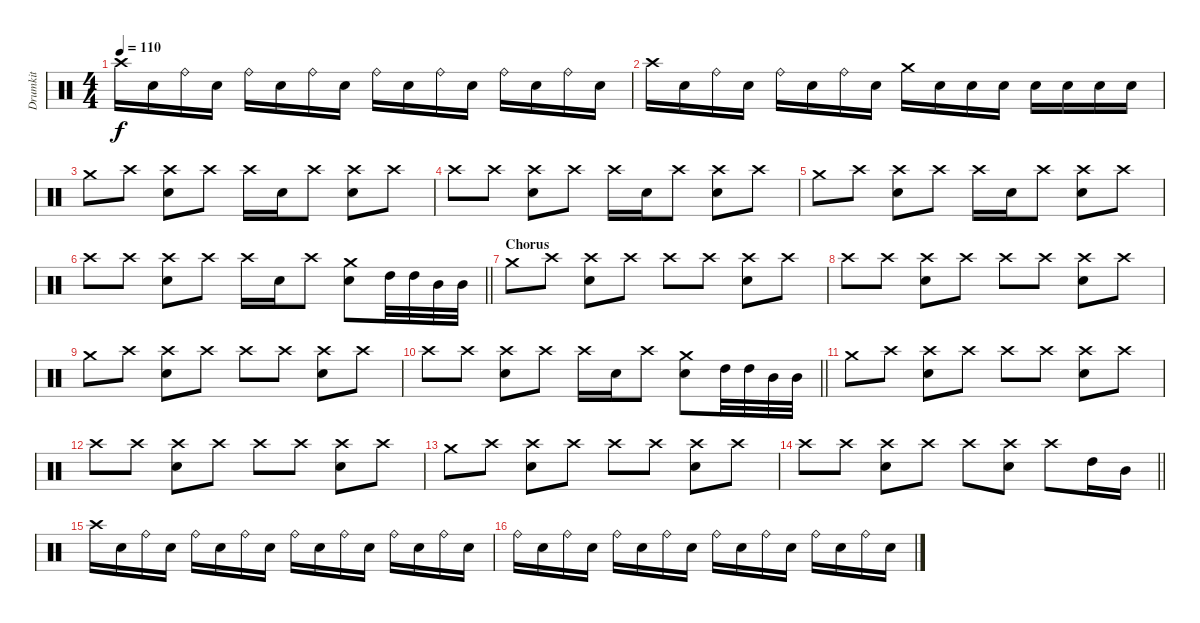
\track ("Drumkit" "Drumkit") {instrument percussion}
\staff {score}
\articulation defaults
\ts (4 4)
\tempo 110
\clef neutral
\ks c "Crash high (hit)".16{dy f} "Electric Snare (hit)".16 "Ride (bell)".16 "Electric Snare (hit)".16 "Ride (bell)".16 "Electric Snare (hit)".16 "Ride (bell)".16 "Electric Snare (hit)".16 "Ride (bell)".16 "Electric Snare (hit)".16 "Ride (bell)".16 "Electric Snare (hit)".16 "Ride (bell)".16 "Electric Snare (hit)".16 "Ride (bell)".16 "Electric Snare (hit)".16
|
"Crash high (hit)".16 "Electric Snare (hit)".16 "Ride (bell)".16 "Electric Snare (hit)".16 "Ride (bell)".16 "Electric Snare (hit)".16 "Ride (bell)".16 "Electric Snare (hit)".16 "Crash medium (hit)".16 "Electric Snare (hit)".16 "Electric Snare (hit)".16 "Electric Snare (hit)".16 "Electric Snare (hit)".16 "Electric Snare (hit)".16 "Electric Snare (hit)".16 "Electric Snare (hit)".16 |
"Crash medium (hit)".8 "Crash high (hit)".8 ("Crash high (hit)" "Electric Snare (hit)").8 "Crash high (hit)".8 "Crash high (hit)".16 "Electric Snare (hit)".16 "Crash high (hit)".8 ("Crash high (hit)" "Electric Snare (hit)").8 "Crash high (hit)".8 |
"Crash high (hit)".8 "Crash high (hit)".8 ("Crash high (hit)" "Electric Snare (hit)").8 "Crash high (hit)".8 "Crash high (hit)".16 "Electric Snare (hit)".16 "Crash high (hit)".8 ("Crash high (hit)" "Electric Snare (hit)").8 "Crash high (hit)".8 |
"Crash medium (hit)".8 "Crash high (hit)".8 ("Crash high (hit)" "Electric Snare (hit)").8 "Crash high (hit)".8 "Crash high (hit)".16 "Electric Snare (hit)".16 "Crash high (hit)".8 ("Crash high (hit)" "Electric Snare (hit)").8 "Crash high (hit)".8 |
\barLineRight lightlight "Crash high (hit)".8 "Crash high (hit)".8
("Crash high (hit)" "Electric Snare (hit)").8 "Crash high (hit)".8 "Crash high (hit)".16 "Electric Snare (hit)".16 "Crash high (hit)".8 ("Crash medium (hit)" "Electric Snare (hit)").8 "High Tom (hit)".32 "High Tom (hit)".32 "Mid Tom (hit)".32 "Mid Tom (hit)".32 |
\section ("" "Chorus")
"Crash medium (hit)".8 "Crash high (hit)".8 ("Crash high (hit)" "Electric Snare (hit)").8 "Crash high (hit)".8 "Crash high (hit)".8 "Crash high (hit)".8 ("Crash high (hit)" "Electric Snare (hit)").8 "Crash high (hit)".8 |
"Crash high (hit)".8 "Crash high (hit)".8 ("Crash high (hit)" "Electric Snare (hit)").8 "Crash high (hit)".8 "Crash high (hit)".8 "Crash high (hit)".8 ("Crash high (hit)" "Electric Snare (hit)").8 "Crash high (hit)".8 |
"Crash medium (hit)".8 "Crash high (hit)".8 ("Crash high (hit)" "Electric Snare (hit)").8 "Crash high (hit)".8 "Crash high (hit)".8 "Crash high (hit)".8 ("Crash high (hit)" "Electric Snare (hit)").8 "Crash high (hit)".8 |
\barLineRight lightlight "Crash high (hit)".8 "Crash high (hit)".8
("Crash high (hit)" "Electric Snare (hit)").8 "Crash high (hit)".8 "Crash high (hit)".16 "Electric Snare (hit)".16 "Crash high (hit)".8 ("Crash medium (hit)" "Electric Snare (hit)").8 "High Tom (hit)".32 "High Tom (hit)".32 "Mid Tom (hit)".32 "Mid Tom (hit)".32 |
"Crash medium (hit)".8 "Crash high (hit)".8 ("Crash high (hit)" "Electric Snare (hit)").8 "Crash high (hit)".8 "Crash high (hit)".8 "Crash high (hit)".8 ("Crash high (hit)" "Electric Snare (hit)").8 "Crash high (hit)".8 |
"Crash high (hit)".8 "Crash high (hit)".8 ("Crash high (hit)" "Electric Snare (hit)").8 "Crash high (hit)".8 "Crash high (hit)".8 "Crash high (hit)".8 ("Crash high (hit)" "Electric Snare (hit)").8 "Crash high (hit)".8 |
"Crash medium (hit)".8 "Crash high (hit)".8 ("Crash high (hit)" "Electric Snare (hit)").8 "Crash high (hit)".8 "Crash high (hit)".8 "Crash high (hit)".8 ("Crash high (hit)" "Electric Snare (hit)").8 "Crash high (hit)".8 |
\barLineRight lightlight "Crash high (hit)".8 "Crash high (hit)".8
("Crash high (hit)" "Electric Snare (hit)").8 "Crash high (hit)".8 "Crash high (hit)".8 ("Crash high (hit)" "Electric Snare (hit)").8 "Crash high (hit)".8 "High Tom (hit)".16 "Mid Tom (hit)".16 |
"Crash high (hit)".16 "Electric Snare (hit)".16 "Ride (bell)".16 "Electric Snare (hit)".16 "Ride (bell)".16 "Electric Snare (hit)".16 "Ride (bell)".16 "Electric Snare (hit)".16 "Ride (bell)".16 "Electric Snare (hit)".16 "Ride (bell)".16 "Electric Snare (hit)".16 "Ride (bell)".16 "Electric Snare (hit)".16 "Ride (bell)".16 "Electric Snare (hit)".16 |
"Ride (bell)".16 "Electric Snare (hit)".16 "Ride (bell)".16 "Electric Snare (hit)".16 "Ride (bell)".16 "Electric Snare (hit)".16 "Ride (bell)".16 "Electric Snare (hit)".16 "Ride (bell)".16 "Electric Snare (hit)".16 "Ride (bell)".16 "Electric Snare (hit)".16 "Ride (bell)".16 "Electric Snare (hit)".16 "Ride (bell)".16 "Electric Snare (hit)".16
